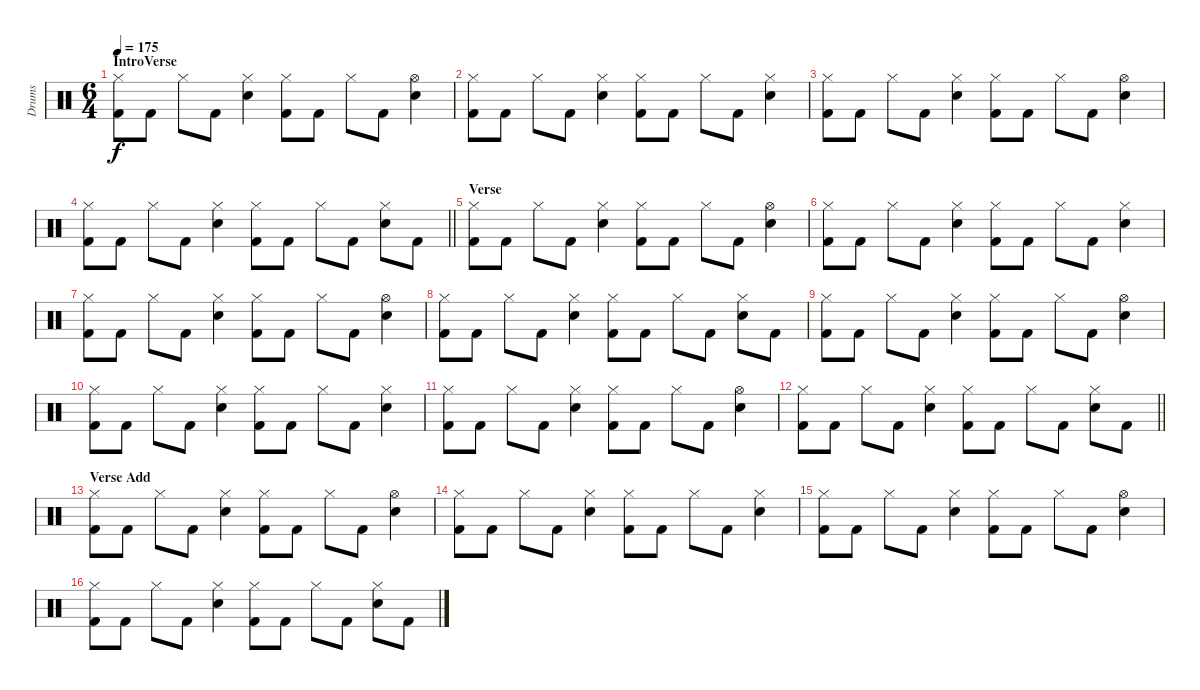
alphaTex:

\track ("Drums" "Drums") {instrument percussion}
\staff {score}
\articulation defaults
\ts (6 4)
\section ("" "IntroVerse")
\tempo 175
\clef neutral
\ks c
("Hi-Hat (closed)" "Kick (hit) 2").8{dy f} "Kick (hit) 2".8 "Hi-Hat (closed)".8 "Kick (hit) 2".8 ("Hi-Hat (closed)" "Electric Snare (hit)").4 ("Hi-Hat (closed)" "Kick (hit) 2").8 "Kick (hit) 2".8 "Hi-Hat (closed)".8 "Kick (hit) 2".8 ("Hi-Hat (open)" "Electric Snare (hit)").4 |
("Hi-Hat (closed)" "Kick (hit) 2").8 "Kick (hit) 2".8 "Hi-Hat (closed)".8 "Kick (hit) 2".8 ("Hi-Hat (closed)" "Electric Snare (hit)").4 ("Hi-Hat (closed)" "Kick (hit) 2").8 "Kick (hit) 2".8 "Hi-Hat (closed)".8 "Kick (hit) 2".8 ("Hi-Hat (closed)" "Electric Snare (hit)").4 |
("Hi-Hat (closed)" "Kick (hit) 2").8 "Kick (hit) 2".8 "Hi-Hat (closed)".8 "Kick (hit) 2".8 ("Hi-Hat (closed)" "Electric Snare (hit)").4 ("Hi-Hat (closed)" "Kick (hit) 2").8 "Kick (hit) 2".8 "Hi-Hat (closed)".8 "Kick (hit) 2".8 ("Hi-Hat (open)" "Electric Snare (hit)").4 |
\barLineRight lightlight
("Hi-Hat (closed)" "Kick (hit) 2").8 "Kick (hit) 2".8 "Hi-Hat (closed)".8 "Kick (hit) 2".8 ("Hi-Hat (closed)" "Electric Snare (hit)").4 ("Hi-Hat (closed)" "Kick (hit) 2").8 "Kick (hit) 2".8 "Hi-Hat (closed)".8 "Kick (hit) 2".8 ("Hi-Hat (closed)" "Electric Snare (hit)").8 "Kick (hit) 2".8 |
\section ("" "Verse")
("Hi-Hat (closed)" "Kick (hit) 2").8 "Kick (hit) 2".8 "Hi-Hat (closed)".8 "Kick (hit) 2".8 ("Hi-Hat (closed)" "Electric Snare (hit)").4 ("Hi-Hat (closed)" "Kick (hit) 2").8 "Kick (hit) 2".8 "Hi-Hat (closed)".8 "Kick (hit) 2".8 ("Hi-Hat (open)" "Electric Snare (hit)").4 |
("Hi-Hat (closed)" "Kick (hit) 2").8 "Kick (hit) 2".8 "Hi-Hat (closed)".8 "Kick (hit) 2".8 ("Hi-Hat (closed)" "Electric Snare (hit)").4 ("Hi-Hat (closed)" "Kick (hit) 2").8 "Kick (hit) 2".8 "Hi-Hat (closed)".8 "Kick (hit) 2".8 ("Hi-Hat (closed)" "Electric Snare (hit)").4 |
("Hi-Hat (closed)" "Kick (hit) 2").8 "Kick (hit) 2".8 "Hi-Hat (closed)".8 "Kick (hit) 2".8 ("Hi-Hat (closed)" "Electric Snare (hit)").4 ("Hi-Hat (closed)" "Kick (hit) 2").8 "Kick (hit) 2".8 "Hi-Hat (closed)".8 "Kick (hit) 2".8 ("Hi-Hat (open)" "Electric Snare (hit)").4 |
("Hi-Hat (closed)" "Kick (hit) 2").8 "Kick (hit) 2".8 "Hi-Hat (closed)".8 "Kick (hit) 2".8 ("Hi-Hat (closed)" "Electric Snare (hit)").4 ("Hi-Hat (closed)" "Kick (hit) 2").8 "Kick (hit) 2".8 "Hi-Hat (closed)".8 "Kick (hit) 2".8 ("Hi-Hat (closed)" "Electric Snare (hit)").8 "Kick (hit) 2".8 |
("Hi-Hat (closed)" "Kick (hit) 2").8 "Kick (hit) 2".8 "Hi-Hat (closed)".8 "Kick (hit) 2".8 ("Hi-Hat (closed)" "Electric Snare (hit)").4 ("Hi-Hat (closed)" "Kick (hit) 2").8 "Kick (hit) 2".8 "Hi-Hat (closed)".8 "Kick (hit) 2".8 ("Hi-Hat (open)" "Electric Snare (hit)").4 |
("Hi-Hat (closed)" "Kick (hit) 2").8 "Kick (hit) 2".8 "Hi-Hat (closed)".8 "Kick (hit) 2".8 ("Hi-Hat (closed)" "Electric Snare (hit)").4 ("Hi-Hat (closed)" "Kick (hit) 2").8 "Kick (hit) 2".8 "Hi-Hat (closed)".8 "Kick (hit) 2".8 ("Hi-Hat (closed)" "Electric Snare (hit)").4 |
("Hi-Hat (closed)" "Kick (hit) 2").8 "Kick (hit) 2".8 "Hi-Hat (closed)".8 "Kick (hit) 2".8 ("Hi-Hat (closed)" "Electric Snare (hit)").4 ("Hi-Hat (closed)" "Kick (hit) 2").8 "Kick (hit) 2".8 "Hi-Hat (closed)".8 "Kick (hit) 2".8 ("Hi-Hat (open)" "Electric Snare (hit)").4 |
\barLineRight lightlight
("Hi-Hat (closed)" "Kick (hit) 2").8 "Kick (hit) 2".8 "Hi-Hat (closed)".8 "Kick (hit) 2".8 ("Hi-Hat (closed)" "Electric Snare (hit)").4 ("Hi-Hat (closed)" "Kick (hit) 2").8 "Kick (hit) 2".8 "Hi-Hat (closed)".8 "Kick (hit) 2".8 ("Hi-Hat (closed)" "Electric Snare (hit)").8 "Kick (hit) 2".8 |
\section ("" "Verse Add")
("Hi-Hat (closed)" "Kick (hit) 2").8 "Kick (hit) 2".8 "Hi-Hat (closed)".8 "Kick (hit) 2".8 ("Hi-Hat (closed)" "Electric Snare (hit)").4 ("Hi-Hat (closed)" "Kick (hit) 2").8 "Kick (hit) 2".8 "Hi-Hat (closed)".8 "Kick (hit) 2".8 ("Hi-Hat (open)" "Electric Snare (hit)").4 |
("Hi-Hat (closed)" "Kick (hit) 2").8 "Kick (hit) 2".8 "Hi-Hat (closed)".8 "Kick (hit) 2".8 ("Hi-Hat (closed)" "Electric Snare (hit)").4 ("Hi-Hat (closed)" "Kick (hit) 2").8 "Kick (hit) 2".8 "Hi-Hat (closed)".8 "Kick (hit) 2".8 ("Hi-Hat (closed)" "Electric Snare (hit)").4 |
("Hi-Hat (closed)" "Kick (hit) 2").8 "Kick (hit) 2".8 "Hi-Hat (closed)".8 "Kick (hit) 2".8 ("Hi-Hat (closed)" "Electric Snare (hit)").4 ("Hi-Hat (closed)" "Kick (hit) 2").8 "Kick (hit) 2".8 "Hi-Hat (closed)".8 "Kick (hit) 2".8 ("Hi-Hat (open)" "Electric Snare (hit)").4 |
("Hi-Hat (closed)" "Kick (hit) 2").8 "Kick (hit) 2".8 "Hi-Hat (closed)".8 "Kick (hit) 2".8 ("Hi-Hat (closed)" "Electric Snare (hit)").4 ("Hi-Hat (closed)" "Kick (hit) 2").8 "Kick (hit) 2".8 "Hi-Hat (closed)".8 "Kick (hit) 2".8 ("Hi-Hat (closed)" "Electric Snare (hit)").8 "Kick (hit) 2".8
